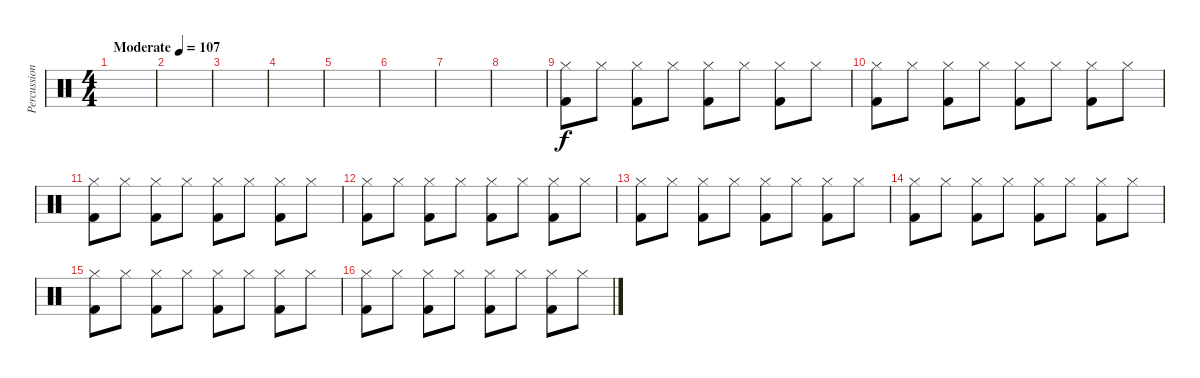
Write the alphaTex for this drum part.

\track ("Percussion" "Percussion") {instrument percussion}
\staff {score}
\articulation defaults
\ts (4 4)
\tempo (107 "Moderate")
\clef neutral
\ks c
|
|
|
|
|
|
|
|
("Hi-Hat (closed)" "Kick (hit) 2").8 "Hi-Hat (closed)".8 ("Hi-Hat (closed)" "Kick (hit) 2").8 "Hi-Hat (closed)".8 ("Hi-Hat (closed)" "Kick (hit) 2").8 "Hi-Hat (closed)".8 ("Hi-Hat (closed)" "Kick (hit) 2").8 "Hi-Hat (closed)".8 |
("Hi-Hat (closed)" "Kick (hit) 2").8 "Hi-Hat (closed)".8 ("Hi-Hat (closed)" "Kick (hit) 2").8 "Hi-Hat (closed)".8 ("Hi-Hat (closed)" "Kick (hit) 2").8 "Hi-Hat (closed)".8 ("Hi-Hat (closed)" "Kick (hit) 2").8 "Hi-Hat (closed)".8 |
("Hi-Hat (closed)" "Kick (hit) 2").8 "Hi-Hat (closed)".8 ("Hi-Hat (closed)" "Kick (hit) 2").8 "Hi-Hat (closed)".8 ("Hi-Hat (closed)" "Kick (hit) 2").8 "Hi-Hat (closed)".8 ("Hi-Hat (closed)" "Kick (hit) 2").8 "Hi-Hat (closed)".8 |
("Hi-Hat (closed)" "Kick (hit) 2").8 "Hi-Hat (closed)".8 ("Hi-Hat (closed)" "Kick (hit) 2").8 "Hi-Hat (closed)".8 ("Hi-Hat (closed)" "Kick (hit) 2").8 "Hi-Hat (closed)".8 ("Hi-Hat (closed)" "Kick (hit) 2").8 "Hi-Hat (closed)".8 |
("Hi-Hat (closed)" "Kick (hit) 2").8 "Hi-Hat (closed)".8 ("Hi-Hat (closed)" "Kick (hit) 2").8 "Hi-Hat (closed)".8 ("Hi-Hat (closed)" "Kick (hit) 2").8 "Hi-Hat (closed)".8 ("Hi-Hat (closed)" "Kick (hit) 2").8 "Hi-Hat (closed)".8 |
("Hi-Hat (closed)" "Kick (hit) 2").8 "Hi-Hat (closed)".8 ("Hi-Hat (closed)" "Kick (hit) 2").8 "Hi-Hat (closed)".8 ("Hi-Hat (closed)" "Kick (hit) 2").8 "Hi-Hat (closed)".8 ("Hi-Hat (closed)" "Kick (hit) 2").8 "Hi-Hat (closed)".8 |
("Hi-Hat (closed)" "Kick (hit) 2").8 "Hi-Hat (closed)".8 ("Hi-Hat (closed)" "Kick (hit) 2").8 "Hi-Hat (closed)".8 ("Hi-Hat (closed)" "Kick (hit) 2").8 "Hi-Hat (closed)".8 ("Hi-Hat (closed)" "Kick (hit) 2").8 "Hi-Hat (closed)".8 |
("Hi-Hat (closed)" "Kick (hit) 2").8 "Hi-Hat (closed)".8 ("Hi-Hat (closed)" "Kick (hit) 2").8 "Hi-Hat (closed)".8 ("Hi-Hat (closed)" "Kick (hit) 2").8 "Hi-Hat (closed)".8 ("Hi-Hat (closed)" "Kick (hit) 2").8 "Hi-Hat (closed)".8
